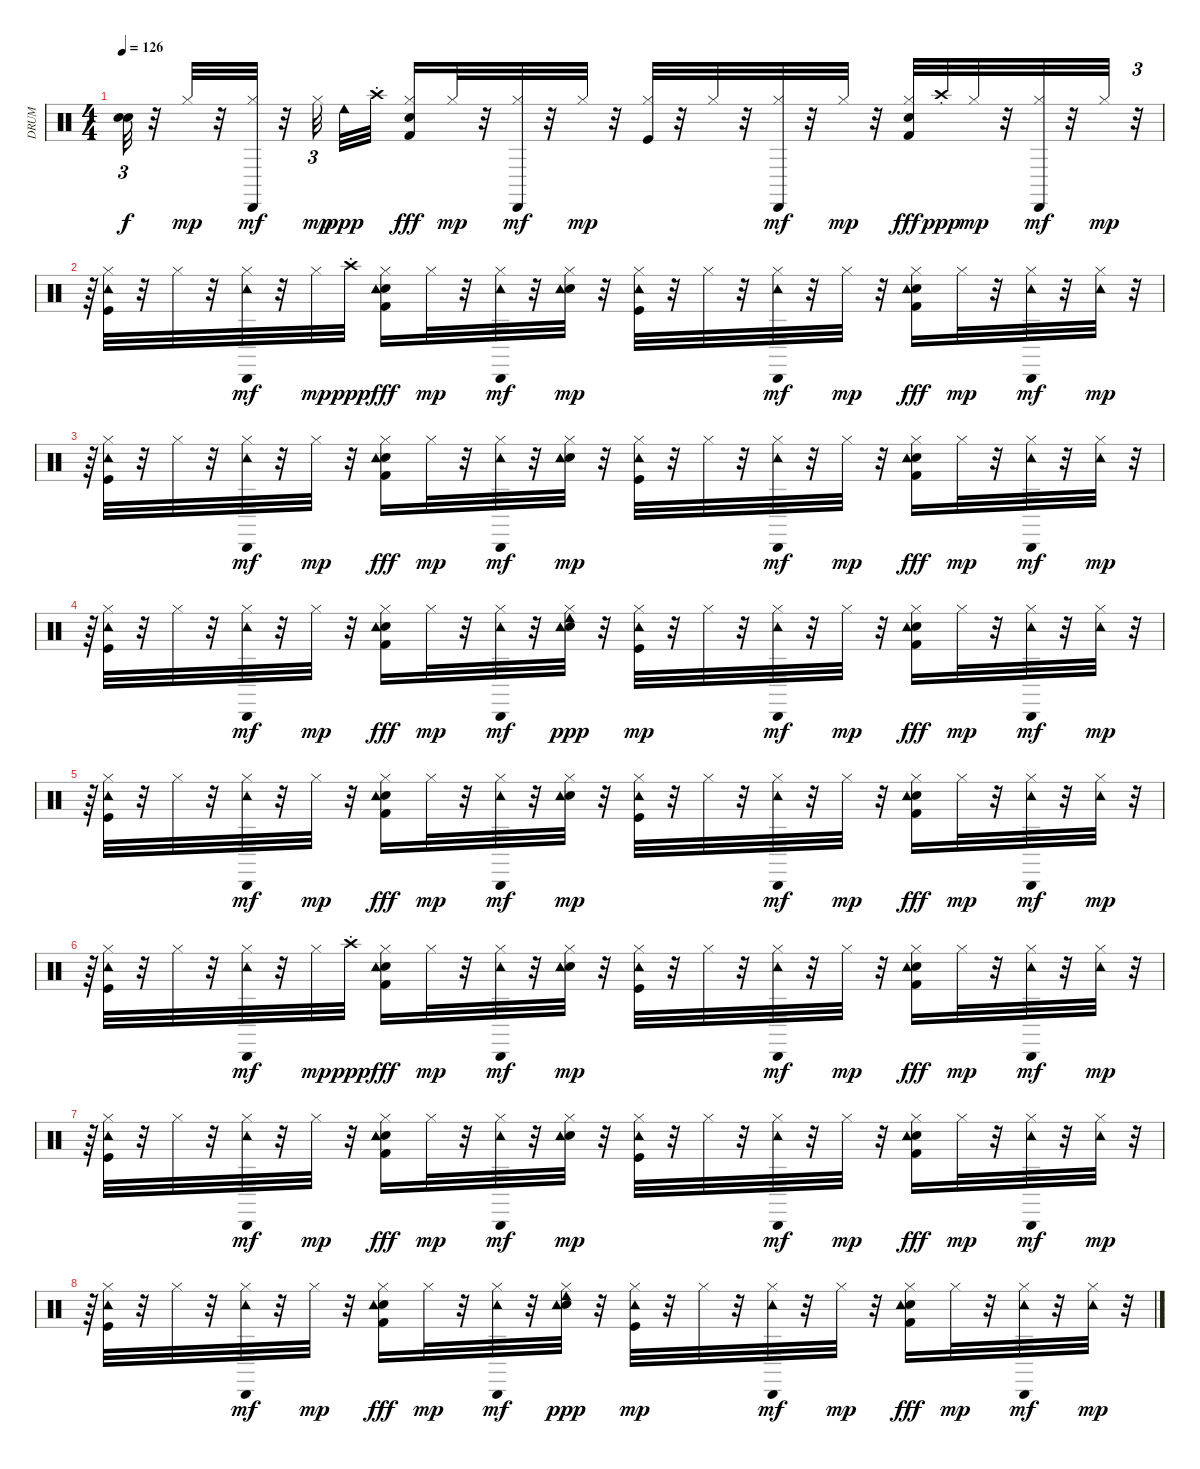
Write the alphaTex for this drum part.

\track ("DRUM" "DRUM") {instrument percussion}
\staff {score}
\articulation defaults
\ts (4 4)
\tempo 126
\clef neutral
\ks c
("Snare (hit)"{t} "Snare (hit)"{t}).32{tu (3 2) dy f} r.32 "Hi-Hat (closed)".32{dy mp} r.32 ("Hi-Hat (closed)" "Cabasa (hit)").32{dy mf} r.32 "Hi-Hat (closed)".32{tu (3 2) dy mp} "Cowbell low (hit)".32{dy ppp} "Crash high (choke)".32 ("Snare (hit) 2" "Hi-Hat (closed)" "Kick (hit) 2").16{dy fff} "Hi-Hat (closed)".32{dy mp} r.32 ("Hi-Hat (closed)" "Cabasa (hit)").32{dy mf} r.32 "Hi-Hat (closed)".32{dy mp} r.32 ("Kick (hit)" "Hi-Hat (closed)").32 r.32 "Hi-Hat (closed)".32 r.32 ("Hi-Hat (closed)" "Cabasa (hit)").32{dy mf} r.32 "Hi-Hat (closed)".32{dy mp} r.32 ("Snare (hit) 2" "Hi-Hat (closed)" "Kick (hit) 2").32{dy fff} "Crash high (choke)".32{dy ppp} "Hi-Hat (closed)".32{dy mp} r.32 ("Hi-Hat (closed)" "Cabasa (hit)").32{dy mf} r.32 "Hi-Hat (closed)".32{dy mp} r.32{tu (3 2)} |
r.64{tu (3 2)} ("Kick (hit)" "Hi-Hat (closed)" "Tambourine (hit)").32 r.32 "Hi-Hat (closed)".32 r.32 ("Hi-Hat (closed)" "Tambourine (hit)" "Cabasa (hit)").32{dy mf} r.32 "Hi-Hat (closed)".32{dy mp} "Crash high (choke)".32{dy ppp} ("Snare (hit) 2" "Hi-Hat (closed)" "Tambourine (hit)" "Kick (hit) 2").16{dy fff} "Hi-Hat (closed)".32{dy mp} r.32 ("Hi-Hat (closed)" "Tambourine (hit)" "Cabasa (hit)").32{dy mf} r.32 ("Snare (hit) 2" "Hi-Hat (closed)" "Tambourine (hit)").32{dy mp} r.32 ("Kick (hit)" "Hi-Hat (closed)" "Tambourine (hit)").32 r.32 "Hi-Hat (closed)".32 r.32 ("Hi-Hat (closed)" "Tambourine (hit)" "Cabasa (hit)").32{dy mf} r.32 "Hi-Hat (closed)".32{dy mp} r.32 ("Snare (hit) 2" "Hi-Hat (closed)" "Tambourine (hit)" "Kick (hit) 2").16{dy fff} "Hi-Hat (closed)".32{dy mp} r.32 ("Hi-Hat (closed)" "Tambourine (hit)" "Cabasa (hit)").32{dy mf} r.32 ("Hi-Hat (closed)" "Tambourine (hit)").32{dy mp} r.32{tu (3 2)} |
r.64{tu (3 2)} ("Kick (hit)" "Hi-Hat (closed)" "Tambourine (hit)").32 r.32 "Hi-Hat (closed)".32 r.32 ("Hi-Hat (closed)" "Tambourine (hit)" "Cabasa (hit)").32{dy mf} r.32 "Hi-Hat (closed)".32{dy mp} r.32 ("Snare (hit) 2" "Hi-Hat (closed)" "Tambourine (hit)" "Kick (hit) 2").16{dy fff} "Hi-Hat (closed)".32{dy mp} r.32 ("Hi-Hat (closed)" "Tambourine (hit)" "Cabasa (hit)").32{dy mf} r.32 ("Snare (hit) 2" "Hi-Hat (closed)" "Tambourine (hit)").32{dy mp} r.32 ("Kick (hit)" "Hi-Hat (closed)" "Tambourine (hit)").32 r.32 "Hi-Hat (closed)".32 r.32 ("Hi-Hat (closed)" "Tambourine (hit)" "Cabasa (hit)").32{dy mf} r.32 "Hi-Hat (closed)".32{dy mp} r.32 ("Snare (hit) 2" "Hi-Hat (closed)" "Tambourine (hit)" "Kick (hit) 2").16{dy fff} "Hi-Hat (closed)".32{dy mp} r.32 ("Hi-Hat (closed)" "Tambourine (hit)" "Cabasa (hit)").32{dy mf} r.32 ("Hi-Hat (closed)" "Tambourine (hit)").32{dy mp} r.32{tu (3 2)} |
r.64{tu (3 2)} ("Kick (hit)" "Hi-Hat (closed)" "Tambourine (hit)").32 r.32 "Hi-Hat (closed)".32 r.32 ("Hi-Hat (closed)" "Tambourine (hit)" "Cabasa (hit)").32{dy mf} r.32 "Hi-Hat (closed)".32{dy mp} r.32 ("Snare (hit) 2" "Hi-Hat (closed)" "Tambourine (hit)" "Kick (hit) 2").16{dy fff} "Hi-Hat (closed)".32{dy mp} r.32 ("Hi-Hat (closed)" "Tambourine (hit)" "Cabasa (hit)").32{dy mf} r.32 ("Snare (hit) 2" "Hi-Hat (closed)" "Tambourine (hit)" "Cowbell low (hit)").32{dy ppp} r.32 ("Kick (hit)" "Hi-Hat (closed)" "Tambourine (hit)").32{dy mp} r.32 "Hi-Hat (closed)".32 r.32 ("Hi-Hat (closed)" "Tambourine (hit)" "Cabasa (hit)").32{dy mf} r.32 "Hi-Hat (closed)".32{dy mp} r.32 ("Snare (hit) 2" "Hi-Hat (closed)" "Tambourine (hit)" "Kick (hit) 2").16{dy fff} "Hi-Hat (closed)".32{dy mp} r.32 ("Hi-Hat (closed)" "Tambourine (hit)" "Cabasa (hit)").32{dy mf} r.32 ("Hi-Hat (closed)" "Tambourine (hit)").32{dy mp} r.32{tu (3 2)} |
r.64{tu (3 2)} ("Kick (hit)" "Hi-Hat (closed)" "Tambourine (hit)").32 r.32 "Hi-Hat (closed)".32 r.32 ("Hi-Hat (closed)" "Tambourine (hit)" "Cabasa (hit)").32{dy mf} r.32 "Hi-Hat (closed)".32{dy mp} r.32 ("Snare (hit) 2" "Hi-Hat (closed)" "Tambourine (hit)" "Kick (hit) 2").16{dy fff} "Hi-Hat (closed)".32{dy mp} r.32 ("Hi-Hat (closed)" "Tambourine (hit)" "Cabasa (hit)").32{dy mf} r.32 ("Snare (hit) 2" "Hi-Hat (closed)" "Tambourine (hit)").32{dy mp} r.32 ("Kick (hit)" "Hi-Hat (closed)" "Tambourine (hit)").32 r.32 "Hi-Hat (closed)".32 r.32 ("Hi-Hat (closed)" "Tambourine (hit)" "Cabasa (hit)").32{dy mf} r.32 "Hi-Hat (closed)".32{dy mp} r.32 ("Snare (hit) 2" "Hi-Hat (closed)" "Tambourine (hit)" "Kick (hit) 2").16{dy fff} "Hi-Hat (closed)".32{dy mp} r.32 ("Hi-Hat (closed)" "Tambourine (hit)" "Cabasa (hit)").32{dy mf} r.32 ("Hi-Hat (closed)" "Tambourine (hit)").32{dy mp} r.32{tu (3 2)} |
r.64{tu (3 2)} ("Kick (hit)" "Hi-Hat (closed)" "Tambourine (hit)").32 r.32 "Hi-Hat (closed)".32 r.32 ("Hi-Hat (closed)" "Tambourine (hit)" "Cabasa (hit)").32{dy mf} r.32 "Hi-Hat (closed)".32{dy mp} "Crash high (choke)".32{dy ppp} ("Snare (hit) 2" "Hi-Hat (closed)" "Tambourine (hit)" "Kick (hit) 2").16{dy fff} "Hi-Hat (closed)".32{dy mp} r.32 ("Hi-Hat (closed)" "Tambourine (hit)" "Cabasa (hit)").32{dy mf} r.32 ("Snare (hit) 2" "Hi-Hat (closed)" "Tambourine (hit)").32{dy mp} r.32 ("Kick (hit)" "Hi-Hat (closed)" "Tambourine (hit)").32 r.32 "Hi-Hat (closed)".32 r.32 ("Hi-Hat (closed)" "Tambourine (hit)" "Cabasa (hit)").32{dy mf} r.32 "Hi-Hat (closed)".32{dy mp} r.32 ("Snare (hit) 2" "Hi-Hat (closed)" "Tambourine (hit)" "Kick (hit) 2").16{dy fff} "Hi-Hat (closed)".32{dy mp} r.32 ("Hi-Hat (closed)" "Tambourine (hit)" "Cabasa (hit)").32{dy mf} r.32 ("Hi-Hat (closed)" "Tambourine (hit)").32{dy mp} r.32{tu (3 2)} |
r.64{tu (3 2)} ("Kick (hit)" "Hi-Hat (closed)" "Tambourine (hit)").32 r.32 "Hi-Hat (closed)".32 r.32 ("Hi-Hat (closed)" "Tambourine (hit)" "Cabasa (hit)").32{dy mf} r.32 "Hi-Hat (closed)".32{dy mp} r.32 ("Snare (hit) 2" "Hi-Hat (closed)" "Tambourine (hit)" "Kick (hit) 2").16{dy fff} "Hi-Hat (closed)".32{dy mp} r.32 ("Hi-Hat (closed)" "Tambourine (hit)" "Cabasa (hit)").32{dy mf} r.32 ("Snare (hit) 2" "Hi-Hat (closed)" "Tambourine (hit)").32{dy mp} r.32 ("Kick (hit)" "Hi-Hat (closed)" "Tambourine (hit)").32 r.32 "Hi-Hat (closed)".32 r.32 ("Hi-Hat (closed)" "Tambourine (hit)" "Cabasa (hit)").32{dy mf} r.32 "Hi-Hat (closed)".32{dy mp} r.32 ("Snare (hit) 2" "Hi-Hat (closed)" "Tambourine (hit)" "Kick (hit) 2").16{dy fff} "Hi-Hat (closed)".32{dy mp} r.32 ("Hi-Hat (closed)" "Tambourine (hit)" "Cabasa (hit)").32{dy mf} r.32 ("Hi-Hat (closed)" "Tambourine (hit)").32{dy mp} r.32{tu (3 2)} |
r.64{tu (3 2)} ("Kick (hit)" "Hi-Hat (closed)" "Tambourine (hit)").32 r.32 "Hi-Hat (closed)".32 r.32 ("Hi-Hat (closed)" "Tambourine (hit)" "Cabasa (hit)").32{dy mf} r.32 "Hi-Hat (closed)".32{dy mp} r.32 ("Snare (hit) 2" "Hi-Hat (closed)" "Tambourine (hit)" "Kick (hit) 2").16{dy fff} "Hi-Hat (closed)".32{dy mp} r.32 ("Hi-Hat (closed)" "Tambourine (hit)" "Cabasa (hit)").32{dy mf} r.32 ("Snare (hit) 2" "Hi-Hat (closed)" "Tambourine (hit)" "Cowbell low (hit)").32{dy ppp} r.32 ("Kick (hit)" "Hi-Hat (closed)" "Tambourine (hit)").32{dy mp} r.32 "Hi-Hat (closed)".32 r.32 ("Hi-Hat (closed)" "Tambourine (hit)" "Cabasa (hit)").32{dy mf} r.32 "Hi-Hat (closed)".32{dy mp} r.32 ("Snare (hit) 2" "Hi-Hat (closed)" "Tambourine (hit)" "Kick (hit) 2").16{dy fff} "Hi-Hat (closed)".32{dy mp} r.32 ("Hi-Hat (closed)" "Tambourine (hit)" "Cabasa (hit)").32{dy mf} r.32 ("Hi-Hat (closed)" "Tambourine (hit)").32{dy mp} r.32{tu (3 2)}
